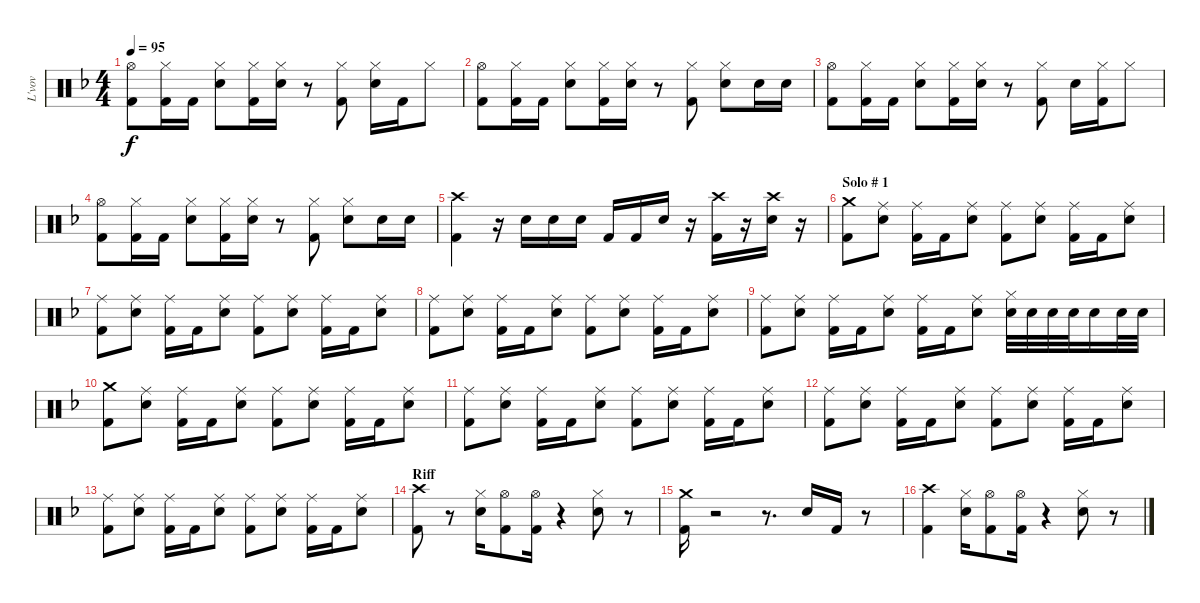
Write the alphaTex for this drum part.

\track ("L'vov" "L'vov") {instrument percussion}
\staff {score}
\articulation defaults
\ts (4 4)
\tempo 95
\clef neutral
\ks f
("Kick (hit) 2" "Hi-Hat (open)").8{dy f} ("Kick (hit) 2" "Hi-Hat (closed)").16 "Kick (hit) 2".16 ("Snare (hit) 2" "Hi-Hat (closed)").8 ("Kick (hit) 2" "Hi-Hat (closed)").16 ("Snare (hit) 2" "Hi-Hat (closed)").16 r.8 ("Kick (hit) 2" "Hi-Hat (closed)").8 ("Snare (hit) 2" "Hi-Hat (closed)").16 "Kick (hit) 2".16 "Hi-Hat (closed)".8 |
("Kick (hit) 2" "Hi-Hat (open)").8 ("Kick (hit) 2" "Hi-Hat (closed)").16 "Kick (hit) 2".16 ("Snare (hit) 2" "Hi-Hat (closed)").8 ("Kick (hit) 2" "Hi-Hat (closed)").16 ("Snare (hit) 2" "Hi-Hat (closed)").16 r.8 ("Kick (hit) 2" "Hi-Hat (closed)").8 ("Snare (hit) 2" "Hi-Hat (closed)").8 "Snare (hit) 2".16 "Snare (hit) 2".16 |
("Kick (hit) 2" "Hi-Hat (open)").8 ("Kick (hit) 2" "Hi-Hat (closed)").16 "Kick (hit) 2".16 ("Snare (hit) 2" "Hi-Hat (closed)").8 ("Kick (hit) 2" "Hi-Hat (closed)").16 ("Snare (hit) 2" "Hi-Hat (closed)").16 r.8 ("Kick (hit) 2" "Hi-Hat (closed)").8 "Snare (hit) 2".16 ("Kick (hit) 2" "Hi-Hat (closed)").16 "Hi-Hat (closed)".8 |
("Kick (hit) 2" "Hi-Hat (open)").8 ("Kick (hit) 2" "Hi-Hat (closed)").16 "Kick (hit) 2".16 ("Snare (hit) 2" "Hi-Hat (closed)").8 ("Kick (hit) 2" "Hi-Hat (closed)").16 ("Snare (hit) 2" "Hi-Hat (closed)").16 r.8 ("Kick (hit) 2" "Hi-Hat (closed)").8 ("Snare (hit) 2" "Hi-Hat (closed)").8 "Snare (hit) 2".16 "Snare (hit) 2".16 |
("Kick (hit) 2" "Crash high (hit)").4 r.16 "Snare (hit) 2".16 "Snare (hit) 2".16 "Snare (hit) 2".16 "Kick (hit) 2".16 "Kick (hit) 2".16 "Snare (hit) 2".16 r.16 ("Kick (hit) 2" "Crash high (hit)").16 r.16 ("Snare (hit) 2" "Crash high (hit)").16 r.16 |
\section ("" "Solo # 1")
("Kick (hit) 2" "Crash medium (hit)").8 ("Snare (hit) 2" "Ride (middle)").8 ("Kick (hit) 2" "Ride (middle)").16 "Kick (hit) 2".16 ("Snare (hit) 2" "Ride (middle)").8 ("Kick (hit) 2" "Ride (middle)").8 ("Snare (hit) 2" "Ride (middle)").8 ("Kick (hit) 2" "Ride (middle)").16 "Kick (hit) 2".16 ("Snare (hit) 2" "Ride (middle)").8 |
("Kick (hit) 2" "Ride (middle)").8 ("Snare (hit) 2" "Ride (middle)").8 ("Kick (hit) 2" "Ride (middle)").16 "Kick (hit) 2".16 ("Snare (hit) 2" "Ride (middle)").8 ("Kick (hit) 2" "Ride (middle)").8 ("Snare (hit) 2" "Ride (middle)").8 ("Kick (hit) 2" "Ride (middle)").16 "Kick (hit) 2".16 ("Snare (hit) 2" "Ride (middle)").8 |
("Kick (hit) 2" "Ride (middle)").8 ("Snare (hit) 2" "Ride (middle)").8 ("Kick (hit) 2" "Ride (middle)").16 "Kick (hit) 2".16 ("Snare (hit) 2" "Ride (middle)").8 ("Kick (hit) 2" "Ride (middle)").8 ("Snare (hit) 2" "Ride (middle)").8 ("Kick (hit) 2" "Ride (middle)").16 "Kick (hit) 2".16 ("Snare (hit) 2" "Ride (middle)").8 |
("Kick (hit) 2" "Ride (middle)").8 ("Snare (hit) 2" "Ride (middle)").8 ("Kick (hit) 2" "Ride (middle)").16 "Kick (hit) 2".16 ("Snare (hit) 2" "Ride (middle)").8 ("Kick (hit) 2" "Ride (middle)").16 "Kick (hit) 2".16 ("Snare (hit) 2" "Ride (middle)").8 ("Snare (hit) 2" "Hi-Hat (closed)").32 "Snare (hit) 2".32 "Snare (hit) 2".32 "Electric Snare (hit)".32 "Snare (hit) 2".16 "Snare (hit) 2".32 "Snare (hit) 2".32 |
("Kick (hit) 2" "Crash medium (hit)").8 ("Snare (hit) 2" "Ride (middle)").8 ("Kick (hit) 2" "Ride (middle)").16 "Kick (hit) 2".16 ("Snare (hit) 2" "Ride (middle)").8 ("Kick (hit) 2" "Ride (middle)").8 ("Snare (hit) 2" "Ride (middle)").8 ("Kick (hit) 2" "Ride (middle)").16 "Kick (hit) 2".16 ("Snare (hit) 2" "Ride (middle)").8 |
("Kick (hit) 2" "Ride (middle)").8 ("Snare (hit) 2" "Ride (middle)").8 ("Kick (hit) 2" "Ride (middle)").16 "Kick (hit) 2".16 ("Snare (hit) 2" "Ride (middle)").8 ("Kick (hit) 2" "Ride (middle)").8 ("Snare (hit) 2" "Ride (middle)").8 ("Kick (hit) 2" "Ride (middle)").16 "Kick (hit) 2".16 ("Snare (hit) 2" "Ride (middle)").8 |
("Kick (hit) 2" "Ride (middle)").8 ("Snare (hit) 2" "Ride (middle)").8 ("Kick (hit) 2" "Ride (middle)").16 "Kick (hit) 2".16 ("Snare (hit) 2" "Ride (middle)").8 ("Kick (hit) 2" "Ride (middle)").8 ("Snare (hit) 2" "Ride (middle)").8 ("Kick (hit) 2" "Ride (middle)").16 "Kick (hit) 2".16 ("Snare (hit) 2" "Ride (middle)").8 |
("Kick (hit) 2" "Ride (middle)").8 ("Snare (hit) 2" "Ride (middle)").8 ("Kick (hit) 2" "Ride (middle)").16 "Kick (hit) 2".16 ("Snare (hit) 2" "Ride (middle)").8 ("Kick (hit) 2" "Ride (middle)").8 ("Snare (hit) 2" "Ride (middle)").8 ("Kick (hit) 2" "Ride (middle)").16 "Kick (hit) 2".16 ("Snare (hit) 2" "Ride (middle)").8 |
\section ("" "Riff")
("Kick (hit) 2" "Crash high (hit)").8 r.8 ("Snare (hit) 2" "Hi-Hat (closed)").16 ("Kick (hit) 2" "Hi-Hat (open)").8 ("Kick (hit) 2" "Hi-Hat (open)").16 r.4 ("Snare (hit) 2" "Hi-Hat (closed)").8 r.8 |
("Kick (hit) 2" "Crash medium (hit)").16 r.2 r.8{d} "Snare (hit) 2".16 "Kick (hit) 2".16 r.8 |
("Kick (hit) 2" "Crash high (hit)").4 ("Snare (hit) 2" "Hi-Hat (closed)").16 ("Kick (hit) 2" "Hi-Hat (open)").8 ("Kick (hit) 2" "Hi-Hat (open)").16 r.4 ("Snare (hit) 2" "Hi-Hat (closed)").8 r.8
